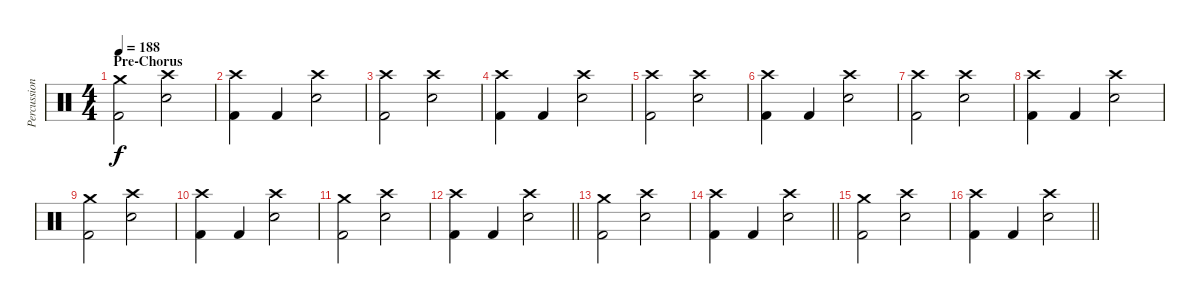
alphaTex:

\track ("Percussion" "Percussion") {instrument percussion}
\staff {score}
\articulation defaults
\ts (4 4)
\section ("" "Pre-Chorus")
\tempo 188
\clef neutral
\ks c
("Crash medium (hit)" "Kick (hit) 2").2{dy f} ("Crash high (hit)" "Snare (hit) 2").2 |
("Crash high (hit)" "Kick (hit) 2").4 "Kick (hit) 2".4 ("Crash high (hit)" "Snare (hit) 2").2 |
("Crash high (hit)" "Kick (hit) 2").2 ("Crash high (hit)" "Snare (hit) 2").2 |
("Crash high (hit)" "Kick (hit) 2").4 "Kick (hit) 2".4 ("Crash high (hit)" "Snare (hit) 2").2 |
("Crash high (hit)" "Kick (hit) 2").2 ("Crash high (hit)" "Snare (hit) 2").2 |
("Crash high (hit)" "Kick (hit) 2").4 "Kick (hit) 2".4 ("Crash high (hit)" "Snare (hit) 2").2 |
("Crash high (hit)" "Kick (hit) 2").2 ("Crash high (hit)" "Snare (hit) 2").2 |
("Crash high (hit)" "Kick (hit) 2").4 "Kick (hit) 2".4 ("Crash high (hit)" "Snare (hit) 2").2 |
("Crash medium (hit)" "Kick (hit) 2").2 ("Crash high (hit)" "Snare (hit) 2").2 |
("Crash high (hit)" "Kick (hit) 2").4 "Kick (hit) 2".4 ("Crash high (hit)" "Snare (hit) 2").2 |
("Crash medium (hit)" "Kick (hit) 2").2 ("Crash high (hit)" "Snare (hit) 2").2 |
\barLineRight lightlight
("Crash high (hit)" "Kick (hit) 2").4 "Kick (hit) 2".4 ("Crash high (hit)" "Snare (hit) 2").2 |
("Crash medium (hit)" "Kick (hit) 2").2 ("Crash high (hit)" "Snare (hit) 2").2 |
\barLineRight lightlight
("Crash high (hit)" "Kick (hit) 2").4 "Kick (hit) 2".4 ("Crash high (hit)" "Snare (hit) 2").2 |
("Crash medium (hit)" "Kick (hit) 2").2 ("Crash high (hit)" "Snare (hit) 2").2 |
\barLineRight lightlight
("Crash high (hit)" "Kick (hit) 2").4 "Kick (hit) 2".4 ("Crash high (hit)" "Snare (hit) 2").2
